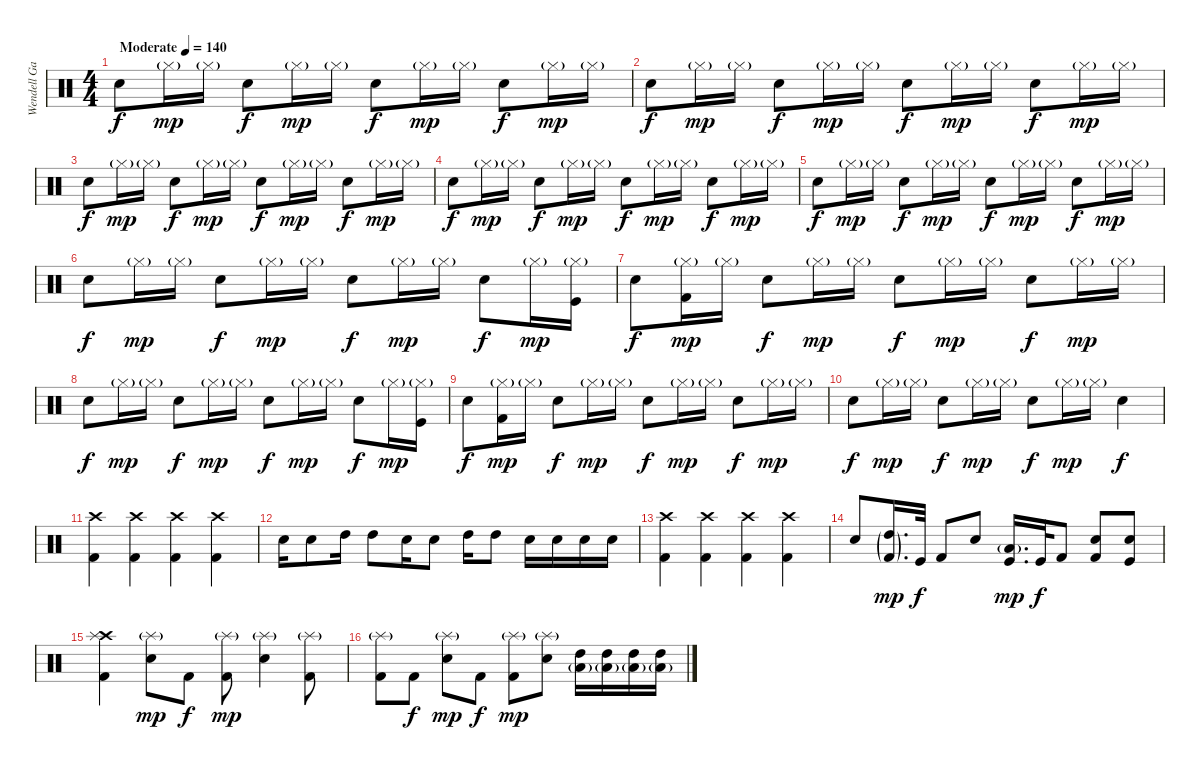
\track ("Wendell Garcia(Drums)" "Wendell Ga") {instrument percussion}
\staff {score}
\articulation defaults
\ts (4 4)
\tempo (140 "Moderate")
\clef neutral
\ks c "Electric Snare (hit)".8{dy f} "Hi-Hat (closed)"{g}.16{dy mp} "Hi-Hat (closed)"{g}.16 "Electric Snare (hit)".8{dy f} "Hi-Hat (closed)"{g}.16{dy mp} "Hi-Hat (closed)"{g}.16 "Electric Snare (hit)".8{dy f} "Hi-Hat (closed)"{g}.16{dy mp} "Hi-Hat (closed)"{g}.16 "Electric Snare (hit)".8{dy f} "Hi-Hat (closed)"{g}.16{dy mp} "Hi-Hat (closed)"{g}.16
|
"Electric Snare (hit)".8{dy f} "Hi-Hat (closed)"{g}.16{dy mp} "Hi-Hat (closed)"{g}.16 "Electric Snare (hit)".8{dy f} "Hi-Hat (closed)"{g}.16{dy mp} "Hi-Hat (closed)"{g}.16 "Electric Snare (hit)".8{dy f} "Hi-Hat (closed)"{g}.16{dy mp} "Hi-Hat (closed)"{g}.16 "Electric Snare (hit)".8{dy f} "Hi-Hat (closed)"{g}.16{dy mp} "Hi-Hat (closed)"{g}.16 |
"Electric Snare (hit)".8{dy f} "Hi-Hat (closed)"{g}.16{dy mp} "Hi-Hat (closed)"{g}.16 "Electric Snare (hit)".8{dy f} "Hi-Hat (closed)"{g}.16{dy mp} "Hi-Hat (closed)"{g}.16 "Electric Snare (hit)".8{dy f} "Hi-Hat (closed)"{g}.16{dy mp} "Hi-Hat (closed)"{g}.16 "Electric Snare (hit)".8{dy f} "Hi-Hat (closed)"{g}.16{dy mp} "Hi-Hat (closed)"{g}.16 |
"Electric Snare (hit)".8{dy f} "Hi-Hat (closed)"{g}.16{dy mp} "Hi-Hat (closed)"{g}.16 "Electric Snare (hit)".8{dy f} "Hi-Hat (closed)"{g}.16{dy mp} "Hi-Hat (closed)"{g}.16 "Electric Snare (hit)".8{dy f} "Hi-Hat (closed)"{g}.16{dy mp} "Hi-Hat (closed)"{g}.16 "Electric Snare (hit)".8{dy f} "Hi-Hat (closed)"{g}.16{dy mp} "Hi-Hat (closed)"{g}.16 |
"Electric Snare (hit)".8{dy f} "Hi-Hat (closed)"{g}.16{dy mp} "Hi-Hat (closed)"{g}.16 "Electric Snare (hit)".8{dy f} "Hi-Hat (closed)"{g}.16{dy mp} "Hi-Hat (closed)"{g}.16 "Electric Snare (hit)".8{dy f} "Hi-Hat (closed)"{g}.16{dy mp} "Hi-Hat (closed)"{g}.16 "Electric Snare (hit)".8{dy f} "Hi-Hat (closed)"{g}.16{dy mp} "Hi-Hat (closed)"{g}.16 |
"Electric Snare (hit)".8{dy f} "Hi-Hat (closed)"{g}.16{dy mp} "Hi-Hat (closed)"{g}.16 "Electric Snare (hit)".8{dy f} "Hi-Hat (closed)"{g}.16{dy mp} "Hi-Hat (closed)"{g}.16 "Electric Snare (hit)".8{dy f} "Hi-Hat (closed)"{g}.16{dy mp} "Hi-Hat (closed)"{g}.16 "Electric Snare (hit)".8{dy f} "Hi-Hat (closed)"{g}.16{dy mp} ("Hi-Hat (closed)"{g} "Kick (hit)").16 |
"Electric Snare (hit)".8{dy f} ("Hi-Hat (closed)"{g} "Kick (hit) 2").16{dy mp} "Hi-Hat (closed)"{g}.16 "Electric Snare (hit)".8{dy f} "Hi-Hat (closed)"{g}.16{dy mp} "Hi-Hat (closed)"{g}.16 "Electric Snare (hit)".8{dy f} "Hi-Hat (closed)"{g}.16{dy mp} "Hi-Hat (closed)"{g}.16 "Electric Snare (hit)".8{dy f} "Hi-Hat (closed)"{g}.16{dy mp} "Hi-Hat (closed)"{g}.16 |
"Electric Snare (hit)".8{dy f} "Hi-Hat (closed)"{g}.16{dy mp} "Hi-Hat (closed)"{g}.16 "Electric Snare (hit)".8{dy f} "Hi-Hat (closed)"{g}.16{dy mp} "Hi-Hat (closed)"{g}.16 "Electric Snare (hit)".8{dy f} "Hi-Hat (closed)"{g}.16{dy mp} "Hi-Hat (closed)"{g}.16 "Electric Snare (hit)".8{dy f} "Hi-Hat (closed)"{g}.16{dy mp} ("Hi-Hat (closed)"{g} "Kick (hit)").16 |
"Electric Snare (hit)".8{dy f} ("Hi-Hat (closed)"{g} "Kick (hit) 2").16{dy mp} "Hi-Hat (closed)"{g}.16 "Electric Snare (hit)".8{dy f} "Hi-Hat (closed)"{g}.16{dy mp} "Hi-Hat (closed)"{g}.16 "Electric Snare (hit)".8{dy f} "Hi-Hat (closed)"{g}.16{dy mp} "Hi-Hat (closed)"{g}.16 "Electric Snare (hit)".8{dy f} "Hi-Hat (closed)"{g}.16{dy mp} "Hi-Hat (closed)"{g}.16 |
"Electric Snare (hit)".8{dy f} "Hi-Hat (closed)"{g}.16{dy mp} "Hi-Hat (closed)"{g}.16 "Electric Snare (hit)".8{dy f} "Hi-Hat (closed)"{g}.16{dy mp} "Hi-Hat (closed)"{g}.16 "Electric Snare (hit)".8{dy f} "Hi-Hat (closed)"{g}.16{dy mp} "Hi-Hat (closed)"{g}.16 "Electric Snare (hit)".4{dy f} |
("Crash high (hit)" "Kick (hit) 2").4 ("Crash high (hit)" "Kick (hit) 2").4 ("Crash high (hit)" "Kick (hit) 2").4 ("Crash high (hit)" "Kick (hit) 2").4 |
"Electric Snare (hit)".16 "Electric Snare (hit)".8 "High Tom (hit)".16 "High Tom (hit)".8 "Electric Snare (hit)".16 "Electric Snare (hit)".8 "High Tom (hit)".16 "High Tom (hit)".8 "Electric Snare (hit)".16 "Electric Snare (hit)".16 "Electric Snare (hit)".16 "Electric Snare (hit)".16 |
("Crash high (hit)" "Kick (hit) 2").4 ("Crash high (hit)" "Kick (hit) 2").4 ("Crash high (hit)" "Kick (hit) 2").4 ("Crash high (hit)" "Kick (hit) 2").4 |
"Electric Snare (hit)".8 ("High Tom (hit)"{g} "Kick (hit) 2"{g}).16{d dy mp} "Kick (hit)".32{dy f} "Kick (hit) 2".8 "Electric Snare (hit)".8 ("Low Floor Tom (hit)"{g} "Kick (hit)").16{d dy mp} "Kick (hit)".32{dy f} "Kick (hit) 2".8 ("Electric Snare (hit)" "Kick (hit) 2").8 ("Electric Snare (hit)" "Kick (hit)").8 |
("Crash high (hit)" "Splash (hit)" "Kick (hit) 2").4 ("Splash (hit)"{g} "Electric Snare (hit)").8{dy mp} "Kick (hit) 2".8{dy f} ("Splash (hit)"{g} "Kick (hit) 2").8{dy mp} ("Splash (hit)"{g} "Electric Snare (hit)").4 ("Splash (hit)"{g} "Kick (hit) 2").8 |
("Splash (hit)"{g} "Kick (hit) 2").8 "Kick (hit) 2".8{dy f} ("Splash (hit)"{g} "Electric Snare (hit)").8{dy mp} "Kick (hit) 2".8{dy f} ("Splash (hit)"{g} "Kick (hit) 2").8{dy mp} ("Splash (hit)"{g} "Electric Snare (hit)").8 ("High Tom (hit)" "Low Tom (hit)"{g}).16 ("High Tom (hit)" "Low Tom (hit)"{g}).16 ("High Tom (hit)" "Low Tom (hit)"{g}).16 ("High Tom (hit)" "Low Tom (hit)"{g}).16
